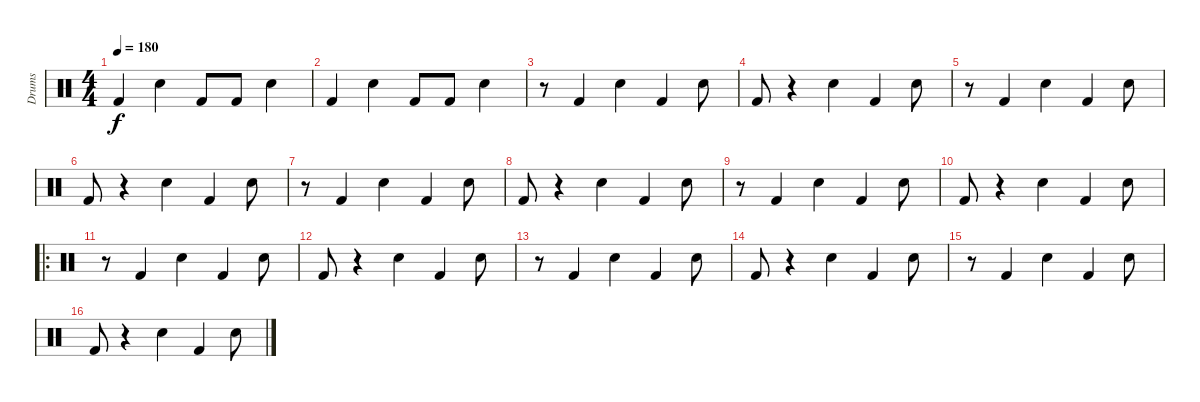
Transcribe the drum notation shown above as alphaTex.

\track ("Drums" "Drums") {instrument percussion}
\staff {score}
\articulation defaults
\ts (4 4)
\tempo 180
\clef neutral
\ks c "Kick (hit) 2".4{dy f} "Snare (hit) 2".4 "Kick (hit) 2".8 "Kick (hit) 2".8 "Snare (hit) 2".4
|
"Kick (hit) 2".4 "Snare (hit) 2".4 "Kick (hit) 2".8 "Kick (hit) 2".8 "Snare (hit) 2".4 |
r.8 "Kick (hit) 2".4 "Snare (hit) 2".4 "Kick (hit) 2".4 "Snare (hit) 2".8 |
"Kick (hit) 2".8 r.4 "Snare (hit) 2".4 "Kick (hit) 2".4 "Snare (hit) 2".8 |
r.8 "Kick (hit) 2".4 "Snare (hit) 2".4 "Kick (hit) 2".4 "Snare (hit) 2".8 |
"Kick (hit) 2".8 r.4 "Snare (hit) 2".4 "Kick (hit) 2".4 "Snare (hit) 2".8 |
r.8 "Kick (hit) 2".4 "Snare (hit) 2".4 "Kick (hit) 2".4 "Snare (hit) 2".8 |
"Kick (hit) 2".8 r.4 "Snare (hit) 2".4 "Kick (hit) 2".4 "Snare (hit) 2".8 |
r.8 "Kick (hit) 2".4 "Snare (hit) 2".4 "Kick (hit) 2".4 "Snare (hit) 2".8 |
"Kick (hit) 2".8 r.4 "Snare (hit) 2".4 "Kick (hit) 2".4 "Snare (hit) 2".8 |
\ro
r.8 "Kick (hit) 2".4 "Snare (hit) 2".4 "Kick (hit) 2".4 "Snare (hit) 2".8 |
"Kick (hit) 2".8 r.4 "Snare (hit) 2".4 "Kick (hit) 2".4 "Snare (hit) 2".8 |
r.8 "Kick (hit) 2".4 "Snare (hit) 2".4 "Kick (hit) 2".4 "Snare (hit) 2".8 |
"Kick (hit) 2".8 r.4 "Snare (hit) 2".4 "Kick (hit) 2".4 "Snare (hit) 2".8 |
r.8 "Kick (hit) 2".4 "Snare (hit) 2".4 "Kick (hit) 2".4 "Snare (hit) 2".8 |
"Kick (hit) 2".8 r.4 "Snare (hit) 2".4 "Kick (hit) 2".4 "Snare (hit) 2".8
